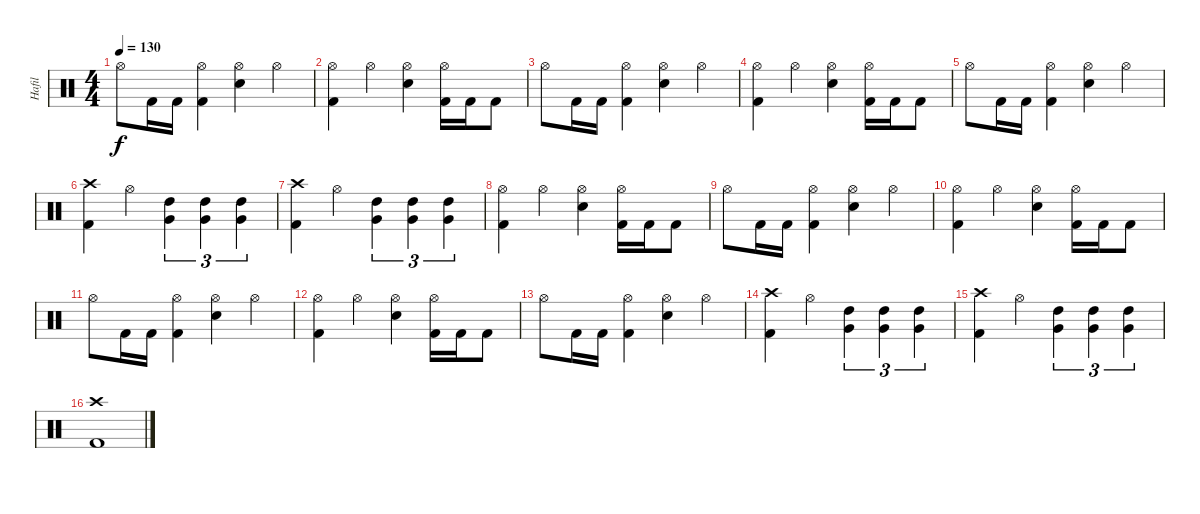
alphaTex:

\track ("Hafil" "Hafil") {instrument percussion}
\staff {score}
\articulation defaults
\ts (4 4)
\tempo 130
\clef neutral
\ks c "Hi-Hat (open)".8{dy f} "Kick (hit) 2".16 "Kick (hit) 2".16
("Kick (hit) 2" "Hi-Hat (open)").4 ("Hi-Hat (open)" "Electric Snare (hit)").4 "Hi-Hat (open)".4 |
("Hi-Hat (open)" "Kick (hit) 2").4 "Hi-Hat (open)".4 ("Hi-Hat (open)" "Electric Snare (hit)").4 ("Hi-Hat (open)" "Kick (hit) 2").16 "Kick (hit) 2".16 "Kick (hit) 2".8 |
"Hi-Hat (open)".8 "Kick (hit) 2".16 "Kick (hit) 2".16 ("Kick (hit) 2" "Hi-Hat (open)").4 ("Hi-Hat (open)" "Electric Snare (hit)").4 "Hi-Hat (open)".4 |
("Hi-Hat (open)" "Kick (hit) 2").4 "Hi-Hat (open)".4 ("Hi-Hat (open)" "Electric Snare (hit)").4 ("Hi-Hat (open)" "Kick (hit) 2").16 "Kick (hit) 2".16 "Kick (hit) 2".8 |
"Hi-Hat (open)".8 "Kick (hit) 2".16 "Kick (hit) 2".16 ("Kick (hit) 2" "Hi-Hat (open)").4 ("Hi-Hat (open)" "Electric Snare (hit)").4 "Hi-Hat (open)".4 |
("Kick (hit) 2" "Crash high (hit)").4 "Hi-Hat (open)".4 ("Very Low Tom (hit)" "High Tom (hit)").4{tu (3 2)} ("Very Low Tom (hit)" "High Tom (hit)").4{tu (3 2)} ("Very Low Tom (hit)" "High Tom (hit)").4{tu (3 2)} |
("Kick (hit) 2" "Crash high (hit)").4 "Hi-Hat (open)".4 ("Very Low Tom (hit)" "High Tom (hit)").4{tu (3 2)} ("Very Low Tom (hit)" "High Tom (hit)").4{tu (3 2)} ("Very Low Tom (hit)" "High Tom (hit)").4{tu (3 2)} |
("Hi-Hat (open)" "Kick (hit) 2").4 "Hi-Hat (open)".4 ("Hi-Hat (open)" "Electric Snare (hit)").4 ("Hi-Hat (open)" "Kick (hit) 2").16 "Kick (hit) 2".16 "Kick (hit) 2".8 |
"Hi-Hat (open)".8 "Kick (hit) 2".16 "Kick (hit) 2".16 ("Kick (hit) 2" "Hi-Hat (open)").4 ("Hi-Hat (open)" "Electric Snare (hit)").4 "Hi-Hat (open)".4 |
("Hi-Hat (open)" "Kick (hit) 2").4 "Hi-Hat (open)".4 ("Hi-Hat (open)" "Electric Snare (hit)").4 ("Hi-Hat (open)" "Kick (hit) 2").16 "Kick (hit) 2".16 "Kick (hit) 2".8 |
"Hi-Hat (open)".8 "Kick (hit) 2".16 "Kick (hit) 2".16 ("Kick (hit) 2" "Hi-Hat (open)").4 ("Hi-Hat (open)" "Electric Snare (hit)").4 "Hi-Hat (open)".4 |
("Hi-Hat (open)" "Kick (hit) 2").4 "Hi-Hat (open)".4 ("Hi-Hat (open)" "Electric Snare (hit)").4 ("Hi-Hat (open)" "Kick (hit) 2").16 "Kick (hit) 2".16 "Kick (hit) 2".8 |
"Hi-Hat (open)".8 "Kick (hit) 2".16 "Kick (hit) 2".16 ("Kick (hit) 2" "Hi-Hat (open)").4 ("Hi-Hat (open)" "Electric Snare (hit)").4 "Hi-Hat (open)".4 |
("Kick (hit) 2" "Crash high (hit)").4 "Hi-Hat (open)".4 ("Very Low Tom (hit)" "High Tom (hit)").4{tu (3 2)} ("Very Low Tom (hit)" "High Tom (hit)").4{tu (3 2)} ("Very Low Tom (hit)" "High Tom (hit)").4{tu (3 2)} |
("Kick (hit) 2" "Crash high (hit)").4 "Hi-Hat (open)".4 ("Very Low Tom (hit)" "High Tom (hit)").4{tu (3 2)} ("Very Low Tom (hit)" "High Tom (hit)").4{tu (3 2)} ("Very Low Tom (hit)" "High Tom (hit)").4{tu (3 2)} |
("Kick (hit) 2" "Crash high (hit)").1
